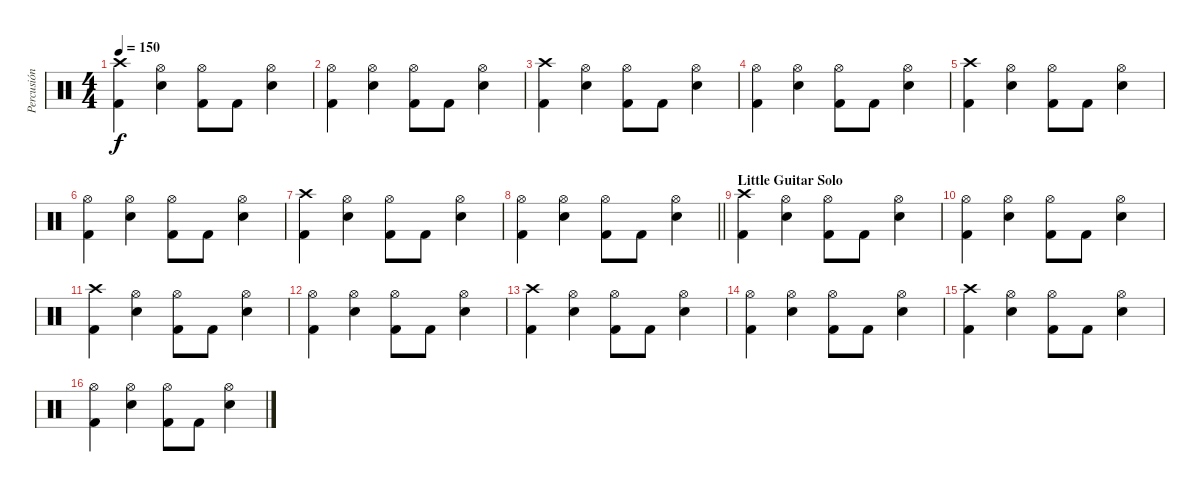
\track ("Percusión" "Percusión") {instrument percussion}
\staff {score}
\articulation defaults
\ts (4 4)
\tempo 150
\clef neutral
\ks c
("Crash high (hit)" "Kick (hit) 2").4{dy f} ("Hi-Hat (open)" "Electric Snare (hit)").4 ("Hi-Hat (open)" "Kick (hit) 2").8 "Kick (hit) 2".8 ("Hi-Hat (open)" "Electric Snare (hit)").4 |
("Hi-Hat (open)" "Kick (hit) 2").4 ("Hi-Hat (open)" "Electric Snare (hit)").4 ("Hi-Hat (open)" "Kick (hit) 2").8 "Kick (hit) 2".8 ("Hi-Hat (open)" "Electric Snare (hit)").4 |
("Crash high (hit)" "Kick (hit) 2").4 ("Hi-Hat (open)" "Electric Snare (hit)").4 ("Hi-Hat (open)" "Kick (hit) 2").8 "Kick (hit) 2".8 ("Hi-Hat (open)" "Electric Snare (hit)").4 |
("Hi-Hat (open)" "Kick (hit) 2").4 ("Hi-Hat (open)" "Electric Snare (hit)").4 ("Hi-Hat (open)" "Kick (hit) 2").8 "Kick (hit) 2".8 ("Hi-Hat (open)" "Electric Snare (hit)").4 |
("Crash high (hit)" "Kick (hit) 2").4 ("Hi-Hat (open)" "Electric Snare (hit)").4 ("Hi-Hat (open)" "Kick (hit) 2").8 "Kick (hit) 2".8 ("Hi-Hat (open)" "Electric Snare (hit)").4 |
("Hi-Hat (open)" "Kick (hit) 2").4 ("Hi-Hat (open)" "Electric Snare (hit)").4 ("Hi-Hat (open)" "Kick (hit) 2").8 "Kick (hit) 2".8 ("Hi-Hat (open)" "Electric Snare (hit)").4 |
("Crash high (hit)" "Kick (hit) 2").4 ("Hi-Hat (open)" "Electric Snare (hit)").4 ("Hi-Hat (open)" "Kick (hit) 2").8 "Kick (hit) 2".8 ("Hi-Hat (open)" "Electric Snare (hit)").4 |
\barLineRight lightlight
("Hi-Hat (open)" "Kick (hit) 2").4 ("Hi-Hat (open)" "Electric Snare (hit)").4 ("Hi-Hat (open)" "Kick (hit) 2").8 "Kick (hit) 2".8 ("Hi-Hat (open)" "Electric Snare (hit)").4 |
\section ("" "Little Guitar Solo")
("Crash high (hit)" "Kick (hit) 2").4 ("Hi-Hat (open)" "Electric Snare (hit)").4 ("Hi-Hat (open)" "Kick (hit) 2").8 "Kick (hit) 2".8 ("Hi-Hat (open)" "Electric Snare (hit)").4 |
("Hi-Hat (open)" "Kick (hit) 2").4 ("Hi-Hat (open)" "Electric Snare (hit)").4 ("Hi-Hat (open)" "Kick (hit) 2").8 "Kick (hit) 2".8 ("Hi-Hat (open)" "Electric Snare (hit)").4 |
("Crash high (hit)" "Kick (hit) 2").4 ("Hi-Hat (open)" "Electric Snare (hit)").4 ("Hi-Hat (open)" "Kick (hit) 2").8 "Kick (hit) 2".8 ("Hi-Hat (open)" "Electric Snare (hit)").4 |
("Hi-Hat (open)" "Kick (hit) 2").4 ("Hi-Hat (open)" "Electric Snare (hit)").4 ("Hi-Hat (open)" "Kick (hit) 2").8 "Kick (hit) 2".8 ("Hi-Hat (open)" "Electric Snare (hit)").4 |
("Crash high (hit)" "Kick (hit) 2").4 ("Hi-Hat (open)" "Electric Snare (hit)").4 ("Hi-Hat (open)" "Kick (hit) 2").8 "Kick (hit) 2".8 ("Hi-Hat (open)" "Electric Snare (hit)").4 |
("Hi-Hat (open)" "Kick (hit) 2").4 ("Hi-Hat (open)" "Electric Snare (hit)").4 ("Hi-Hat (open)" "Kick (hit) 2").8 "Kick (hit) 2".8 ("Hi-Hat (open)" "Electric Snare (hit)").4 |
("Crash high (hit)" "Kick (hit) 2").4 ("Hi-Hat (open)" "Electric Snare (hit)").4 ("Hi-Hat (open)" "Kick (hit) 2").8 "Kick (hit) 2".8 ("Hi-Hat (open)" "Electric Snare (hit)").4 |
("Hi-Hat (open)" "Kick (hit) 2").4 ("Hi-Hat (open)" "Electric Snare (hit)").4 ("Hi-Hat (open)" "Kick (hit) 2").8 "Kick (hit) 2".8 ("Hi-Hat (open)" "Electric Snare (hit)").4
